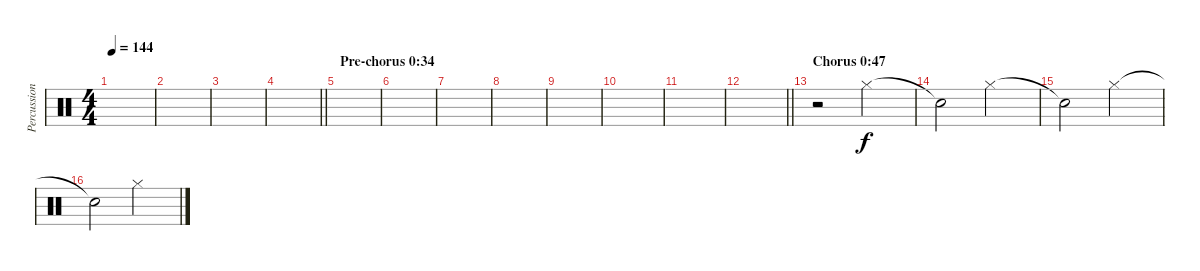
\track ("Percussion" "Percussion") {instrument percussion}
\staff {score}
\articulation defaults
\ts (4 4)
\tempo 144
\clef neutral
\ks c
|
|
|
\barLineRight lightlight
|
\section ("" "Pre-chorus 0:34")
|
|
|
|
|
|
|
\barLineRight lightlight
|
\section ("" "Chorus 0:47")
r.2 "Hi-Hat (closed)".2 |
"Snare (hit)"{t}.2 "Hi-Hat (closed)".2 |
"Snare (hit)"{t}.2 "Hi-Hat (closed)".2 |
"Snare (hit)"{t}.2 "Hi-Hat (closed)".2
